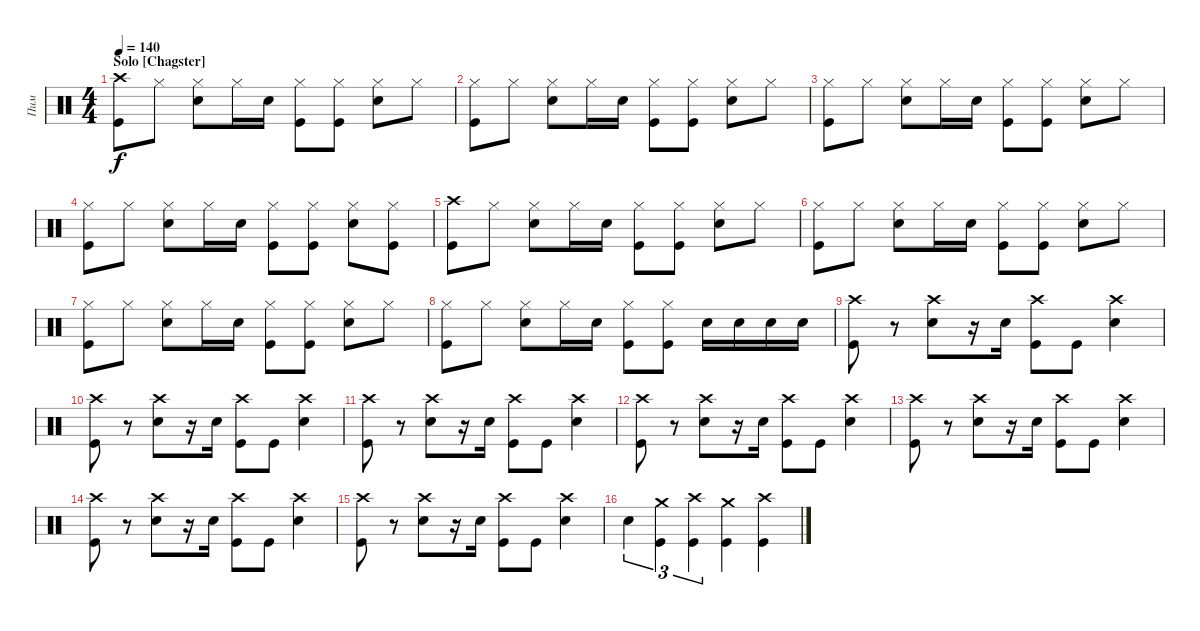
\track ("Пим" "Пим") {instrument percussion}
\staff {score}
\articulation defaults
\ts (4 4)
\section ("" "Solo [Chagster]")
\tempo 140
\clef neutral
\ks c
("Crash high (hit)" "Kick (hit)").8{dy f} "Hi-Hat (closed)".8 ("Hi-Hat (closed)" "Snare (hit) 2").8 "Hi-Hat (closed)".16 "Snare (hit) 2".16 ("Hi-Hat (closed)" "Kick (hit)").8 ("Hi-Hat (closed)" "Kick (hit)").8 ("Hi-Hat (closed)" "Snare (hit) 2").8 "Hi-Hat (closed)".8 |
("Hi-Hat (closed)" "Kick (hit)").8 "Hi-Hat (closed)".8 ("Hi-Hat (closed)" "Snare (hit) 2").8 "Hi-Hat (closed)".16 "Snare (hit) 2".16 ("Hi-Hat (closed)" "Kick (hit)").8 ("Hi-Hat (closed)" "Kick (hit)").8 ("Hi-Hat (closed)" "Snare (hit) 2").8 "Hi-Hat (closed)".8 |
("Hi-Hat (closed)" "Kick (hit)").8 "Hi-Hat (closed)".8 ("Hi-Hat (closed)" "Snare (hit) 2").8 "Hi-Hat (closed)".16 "Snare (hit) 2".16 ("Hi-Hat (closed)" "Kick (hit)").8 ("Hi-Hat (closed)" "Kick (hit)").8 ("Hi-Hat (closed)" "Snare (hit) 2").8 "Hi-Hat (closed)".8 |
("Hi-Hat (closed)" "Kick (hit)").8 "Hi-Hat (closed)".8 ("Hi-Hat (closed)" "Snare (hit) 2").8 "Hi-Hat (closed)".16 "Snare (hit) 2".16 ("Hi-Hat (closed)" "Kick (hit)").8 ("Hi-Hat (closed)" "Kick (hit)").8 ("Hi-Hat (closed)" "Snare (hit) 2").8 ("Hi-Hat (closed)" "Kick (hit)").8 |
("Crash high (hit)" "Kick (hit)").8 "Hi-Hat (closed)".8 ("Hi-Hat (closed)" "Snare (hit) 2").8 "Hi-Hat (closed)".16 "Snare (hit) 2".16 ("Hi-Hat (closed)" "Kick (hit)").8 ("Hi-Hat (closed)" "Kick (hit)").8 ("Hi-Hat (closed)" "Snare (hit) 2").8 "Hi-Hat (closed)".8 |
("Hi-Hat (closed)" "Kick (hit)").8 "Hi-Hat (closed)".8 ("Hi-Hat (closed)" "Snare (hit) 2").8 "Hi-Hat (closed)".16 "Snare (hit) 2".16 ("Hi-Hat (closed)" "Kick (hit)").8 ("Hi-Hat (closed)" "Kick (hit)").8 ("Hi-Hat (closed)" "Snare (hit) 2").8 "Hi-Hat (closed)".8 |
("Hi-Hat (closed)" "Kick (hit)").8 "Hi-Hat (closed)".8 ("Hi-Hat (closed)" "Snare (hit) 2").8 "Hi-Hat (closed)".16 "Snare (hit) 2".16 ("Hi-Hat (closed)" "Kick (hit)").8 ("Hi-Hat (closed)" "Kick (hit)").8 ("Hi-Hat (closed)" "Snare (hit) 2").8 "Hi-Hat (closed)".8 |
("Hi-Hat (closed)" "Kick (hit)").8 "Hi-Hat (closed)".8 ("Hi-Hat (closed)" "Snare (hit) 2").8 "Hi-Hat (closed)".16 "Snare (hit) 2".16 ("Hi-Hat (closed)" "Kick (hit)").8 ("Hi-Hat (closed)" "Kick (hit)").8 "Snare (hit) 2".16 "Snare (hit) 2".16 "Snare (hit) 2".16 "Snare (hit) 2".16 |
("Crash high (hit)" "Kick (hit)").8 r.8 ("Crash high (hit)" "Snare (hit) 2").8 r.16 "Snare (hit) 2".16 ("Crash high (hit)" "Kick (hit)").8 "Kick (hit)".8 ("Crash high (hit)" "Snare (hit) 2").4 |
("Crash high (hit)" "Kick (hit)").8 r.8 ("Crash high (hit)" "Snare (hit) 2").8 r.16 "Snare (hit) 2".16 ("Crash high (hit)" "Kick (hit)").8 "Kick (hit)".8 ("Crash high (hit)" "Snare (hit) 2").4 |
("Crash high (hit)" "Kick (hit)").8 r.8 ("Crash high (hit)" "Snare (hit) 2").8 r.16 "Snare (hit) 2".16 ("Crash high (hit)" "Kick (hit)").8 "Kick (hit)".8 ("Crash high (hit)" "Snare (hit) 2").4 |
("Crash high (hit)" "Kick (hit)").8 r.8 ("Crash high (hit)" "Snare (hit) 2").8 r.16 "Snare (hit) 2".16 ("Crash high (hit)" "Kick (hit)").8 "Kick (hit)".8 ("Crash high (hit)" "Snare (hit) 2").4 |
("Crash high (hit)" "Kick (hit)").8 r.8 ("Crash high (hit)" "Snare (hit) 2").8 r.16 "Snare (hit) 2".16 ("Crash high (hit)" "Kick (hit)").8 "Kick (hit)".8 ("Crash high (hit)" "Snare (hit) 2").4 |
("Crash high (hit)" "Kick (hit)").8 r.8 ("Crash high (hit)" "Snare (hit) 2").8 r.16 "Snare (hit) 2".16 ("Crash high (hit)" "Kick (hit)").8 "Kick (hit)".8 ("Crash high (hit)" "Snare (hit) 2").4 |
("Crash high (hit)" "Kick (hit)").8 r.8 ("Crash high (hit)" "Snare (hit) 2").8 r.16 "Snare (hit) 2".16 ("Crash high (hit)" "Kick (hit)").8 "Kick (hit)".8 ("Crash high (hit)" "Snare (hit) 2").4 |
"Snare (hit) 2".4{tu (3 2)} ("Crash medium (hit)" "Kick (hit)").4{tu (3 2)} ("Crash high (hit)" "Kick (hit)").4{tu (3 2)} ("Crash medium (hit)" "Kick (hit)").4 ("Crash high (hit)" "Kick (hit)").4
